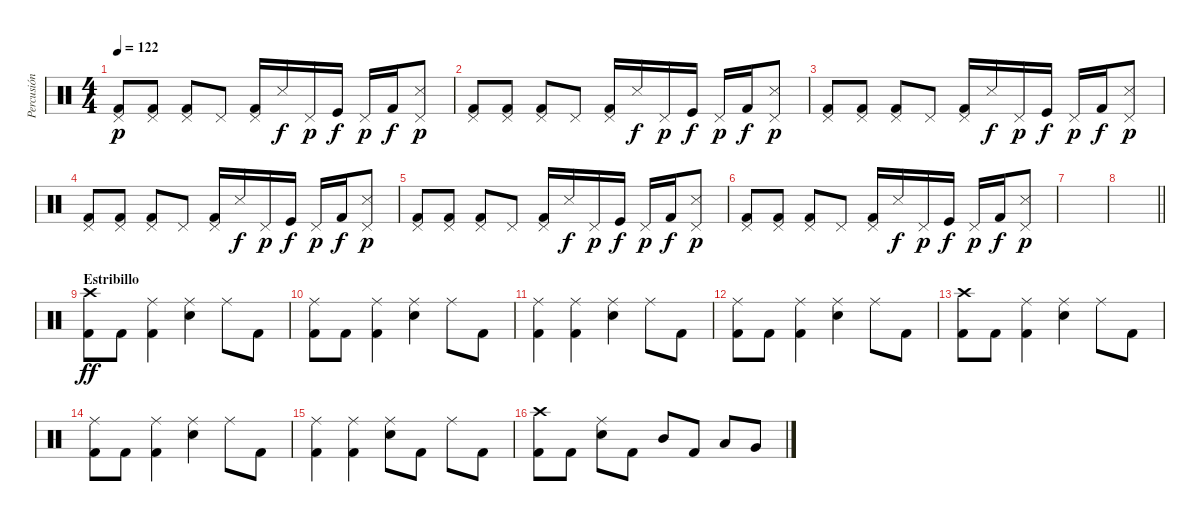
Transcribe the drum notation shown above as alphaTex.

\track ("Percusión" "Percusión") {instrument percussion}
\staff {score}
\articulation defaults
\ts (4 4)
\tempo 122
\clef neutral
\ks c
("Pedal Hi-Hat (hit)" "Kick (hit) 2").8{dy p} ("Pedal Hi-Hat (hit)" "Kick (hit) 2").8 ("Pedal Hi-Hat (hit)" "Kick (hit) 2").8 "Pedal Hi-Hat (hit)".8 ("Pedal Hi-Hat (hit)" "Kick (hit) 2").16 "Snare (side stick) 3".16{dy f} "Pedal Hi-Hat (hit)".16{dy p} "Kick (hit)".16{dy f} "Pedal Hi-Hat (hit)".16{dy p} "Kick (hit) 2".16{dy f} ("Pedal Hi-Hat (hit)" "Snare (side stick) 3").8{dy p} |
("Pedal Hi-Hat (hit)" "Kick (hit) 2").8 ("Pedal Hi-Hat (hit)" "Kick (hit) 2").8 ("Pedal Hi-Hat (hit)" "Kick (hit) 2").8 "Pedal Hi-Hat (hit)".8 ("Pedal Hi-Hat (hit)" "Kick (hit) 2").16 "Snare (side stick) 3".16{dy f} "Pedal Hi-Hat (hit)".16{dy p} "Kick (hit)".16{dy f} "Pedal Hi-Hat (hit)".16{dy p} "Kick (hit) 2".16{dy f} ("Pedal Hi-Hat (hit)" "Snare (side stick) 3").8{dy p} |
("Pedal Hi-Hat (hit)" "Kick (hit) 2").8 ("Pedal Hi-Hat (hit)" "Kick (hit) 2").8 ("Pedal Hi-Hat (hit)" "Kick (hit) 2").8 "Pedal Hi-Hat (hit)".8 ("Pedal Hi-Hat (hit)" "Kick (hit) 2").16 "Snare (side stick) 3".16{dy f} "Pedal Hi-Hat (hit)".16{dy p} "Kick (hit)".16{dy f} "Pedal Hi-Hat (hit)".16{dy p} "Kick (hit) 2".16{dy f} ("Pedal Hi-Hat (hit)" "Snare (side stick) 3").8{dy p} |
("Pedal Hi-Hat (hit)" "Kick (hit) 2").8 ("Pedal Hi-Hat (hit)" "Kick (hit) 2").8 ("Pedal Hi-Hat (hit)" "Kick (hit) 2").8 "Pedal Hi-Hat (hit)".8 ("Pedal Hi-Hat (hit)" "Kick (hit) 2").16 "Snare (side stick) 3".16{dy f} "Pedal Hi-Hat (hit)".16{dy p} "Kick (hit)".16{dy f} "Pedal Hi-Hat (hit)".16{dy p} "Kick (hit) 2".16{dy f} ("Pedal Hi-Hat (hit)" "Snare (side stick) 3").8{dy p} |
("Pedal Hi-Hat (hit)" "Kick (hit) 2").8 ("Pedal Hi-Hat (hit)" "Kick (hit) 2").8 ("Pedal Hi-Hat (hit)" "Kick (hit) 2").8 "Pedal Hi-Hat (hit)".8 ("Pedal Hi-Hat (hit)" "Kick (hit) 2").16 "Snare (side stick) 3".16{dy f} "Pedal Hi-Hat (hit)".16{dy p} "Kick (hit)".16{dy f} "Pedal Hi-Hat (hit)".16{dy p} "Kick (hit) 2".16{dy f} ("Pedal Hi-Hat (hit)" "Snare (side stick) 3").8{dy p} |
("Pedal Hi-Hat (hit)" "Kick (hit) 2").8 ("Pedal Hi-Hat (hit)" "Kick (hit) 2").8 ("Pedal Hi-Hat (hit)" "Kick (hit) 2").8 "Pedal Hi-Hat (hit)".8 ("Pedal Hi-Hat (hit)" "Kick (hit) 2").16 "Snare (side stick) 3".16{dy f} "Pedal Hi-Hat (hit)".16{dy p} "Kick (hit)".16{dy f} "Pedal Hi-Hat (hit)".16{dy p} "Kick (hit) 2".16{dy f} ("Pedal Hi-Hat (hit)" "Snare (side stick) 3").8{dy p} |
|
\barLineRight lightlight
|
\section ("" "Estribillo")
("Crash high (hit)" "Kick (hit) 2").8{dy ff} "Kick (hit) 2".8 ("Ride (middle)" "Kick (hit) 2").4 ("Ride (middle)" "Snare (hit) 2").4 "Ride (middle)".8 "Kick (hit) 2".8 |
("Ride (middle)" "Kick (hit) 2").8 "Kick (hit) 2".8 ("Ride (middle)" "Kick (hit) 2").4 ("Ride (middle)" "Snare (hit) 2").4 "Ride (middle)".8 "Kick (hit) 2".8 |
("Ride (middle)" "Kick (hit) 2").4 ("Ride (middle)" "Kick (hit) 2").4 ("Ride (middle)" "Snare (hit) 2").4 "Ride (middle)".8 "Kick (hit) 2".8 |
("Ride (middle)" "Kick (hit) 2").8 "Kick (hit) 2".8 ("Ride (middle)" "Kick (hit) 2").4 ("Ride (middle)" "Snare (hit) 2").4 "Ride (middle)".8 "Kick (hit) 2".8 |
("Crash high (hit)" "Kick (hit) 2").8 "Kick (hit) 2".8 ("Ride (middle)" "Kick (hit) 2").4 ("Ride (middle)" "Snare (hit) 2").4 "Ride (middle)".8 "Kick (hit) 2".8 |
("Ride (middle)" "Kick (hit) 2").8 "Kick (hit) 2".8 ("Ride (middle)" "Kick (hit) 2").4 ("Ride (middle)" "Snare (hit) 2").4 "Ride (middle)".8 "Kick (hit) 2".8 |
("Ride (middle)" "Kick (hit) 2").4 ("Ride (middle)" "Kick (hit) 2").4 ("Ride (middle)" "Snare (hit) 2").8 "Kick (hit) 2".8 "Ride (middle)".8 "Kick (hit) 2".8 |
("Crash high (hit)" "Kick (hit) 2").8 "Kick (hit) 2".8 ("Ride (middle)" "Snare (hit) 2").8 "Kick (hit) 2".8 "Mid Tom (hit)".8 "Kick (hit) 2".8 "Low Tom (hit)".8 "Very Low Tom (hit)".8
